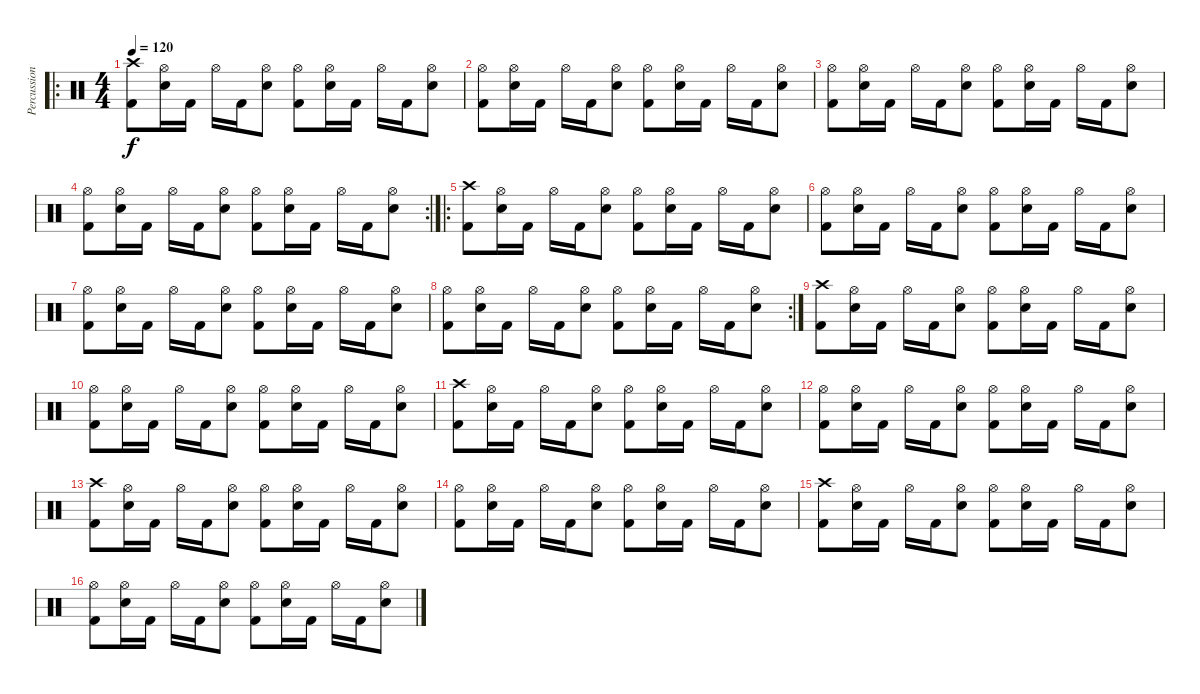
\track ("Percussion" "Percussion") {instrument percussion}
\staff {score}
\articulation defaults
\ro
\ts (4 4)
\tempo 120
\clef neutral
\ks c
("Crash high (hit)" "Kick (hit) 2").8{dy f} ("Hi-Hat (open)" "Snare (hit) 2").16 "Kick (hit) 2".16 "Hi-Hat (open)".16 "Kick (hit) 2".16 ("Hi-Hat (open)" "Snare (hit) 2").8 ("Hi-Hat (open)" "Kick (hit) 2").8 ("Hi-Hat (open)" "Snare (hit) 2").16 "Kick (hit) 2".16 "Hi-Hat (open)".16 "Kick (hit) 2".16 ("Hi-Hat (open)" "Snare (hit) 2").8 |
("Hi-Hat (open)" "Kick (hit) 2").8 ("Hi-Hat (open)" "Snare (hit) 2").16 "Kick (hit) 2".16 "Hi-Hat (open)".16 "Kick (hit) 2".16 ("Hi-Hat (open)" "Snare (hit) 2").8 ("Hi-Hat (open)" "Kick (hit) 2").8 ("Hi-Hat (open)" "Snare (hit) 2").16 "Kick (hit) 2".16 "Hi-Hat (open)".16 "Kick (hit) 2".16 ("Hi-Hat (open)" "Snare (hit) 2").8 |
("Hi-Hat (open)" "Kick (hit) 2").8 ("Hi-Hat (open)" "Snare (hit) 2").16 "Kick (hit) 2".16 "Hi-Hat (open)".16 "Kick (hit) 2".16 ("Hi-Hat (open)" "Snare (hit) 2").8 ("Hi-Hat (open)" "Kick (hit) 2").8 ("Hi-Hat (open)" "Snare (hit) 2").16 "Kick (hit) 2".16 "Hi-Hat (open)".16 "Kick (hit) 2".16 ("Hi-Hat (open)" "Snare (hit) 2").8 |
\rc 2
("Hi-Hat (open)" "Kick (hit) 2").8 ("Hi-Hat (open)" "Snare (hit) 2").16 "Kick (hit) 2".16 "Hi-Hat (open)".16 "Kick (hit) 2".16 ("Hi-Hat (open)" "Snare (hit) 2").8 ("Hi-Hat (open)" "Kick (hit) 2").8 ("Hi-Hat (open)" "Snare (hit) 2").16 "Kick (hit) 2".16 "Hi-Hat (open)".16 "Kick (hit) 2".16 ("Hi-Hat (open)" "Snare (hit) 2").8 |
\ro
("Crash high (hit)" "Kick (hit) 2").8 ("Hi-Hat (open)" "Snare (hit) 2").16 "Kick (hit) 2".16 "Hi-Hat (open)".16 "Kick (hit) 2".16 ("Hi-Hat (open)" "Snare (hit) 2").8 ("Hi-Hat (open)" "Kick (hit) 2").8 ("Hi-Hat (open)" "Snare (hit) 2").16 "Kick (hit) 2".16 "Hi-Hat (open)".16 "Kick (hit) 2".16 ("Hi-Hat (open)" "Snare (hit) 2").8 |
("Hi-Hat (open)" "Kick (hit) 2").8 ("Hi-Hat (open)" "Snare (hit) 2").16 "Kick (hit) 2".16 "Hi-Hat (open)".16 "Kick (hit) 2".16 ("Hi-Hat (open)" "Snare (hit) 2").8 ("Hi-Hat (open)" "Kick (hit) 2").8 ("Hi-Hat (open)" "Snare (hit) 2").16 "Kick (hit) 2".16 "Hi-Hat (open)".16 "Kick (hit) 2".16 ("Hi-Hat (open)" "Snare (hit) 2").8 |
("Hi-Hat (open)" "Kick (hit) 2").8 ("Hi-Hat (open)" "Snare (hit) 2").16 "Kick (hit) 2".16 "Hi-Hat (open)".16 "Kick (hit) 2".16 ("Hi-Hat (open)" "Snare (hit) 2").8 ("Hi-Hat (open)" "Kick (hit) 2").8 ("Hi-Hat (open)" "Snare (hit) 2").16 "Kick (hit) 2".16 "Hi-Hat (open)".16 "Kick (hit) 2".16 ("Hi-Hat (open)" "Snare (hit) 2").8 |
\rc 2
("Hi-Hat (open)" "Kick (hit) 2").8 ("Hi-Hat (open)" "Snare (hit) 2").16 "Kick (hit) 2".16 "Hi-Hat (open)".16 "Kick (hit) 2".16 ("Hi-Hat (open)" "Snare (hit) 2").8 ("Hi-Hat (open)" "Kick (hit) 2").8 ("Hi-Hat (open)" "Snare (hit) 2").16 "Kick (hit) 2".16 "Hi-Hat (open)".16 "Kick (hit) 2".16 ("Hi-Hat (open)" "Snare (hit) 2").8 |
("Crash high (hit)" "Kick (hit) 2").8 ("Hi-Hat (open)" "Snare (hit) 2").16 "Kick (hit) 2".16 "Hi-Hat (open)".16 "Kick (hit) 2".16 ("Hi-Hat (open)" "Snare (hit) 2").8 ("Hi-Hat (open)" "Kick (hit) 2").8 ("Hi-Hat (open)" "Snare (hit) 2").16 "Kick (hit) 2".16 "Hi-Hat (open)".16 "Kick (hit) 2".16 ("Hi-Hat (open)" "Snare (hit) 2").8 |
("Hi-Hat (open)" "Kick (hit) 2").8 ("Hi-Hat (open)" "Snare (hit) 2").16 "Kick (hit) 2".16 "Hi-Hat (open)".16 "Kick (hit) 2".16 ("Hi-Hat (open)" "Snare (hit) 2").8 ("Hi-Hat (open)" "Kick (hit) 2").8 ("Hi-Hat (open)" "Snare (hit) 2").16 "Kick (hit) 2".16 "Hi-Hat (open)".16 "Kick (hit) 2".16 ("Hi-Hat (open)" "Snare (hit) 2").8 |
("Crash high (hit)" "Kick (hit) 2").8 ("Hi-Hat (open)" "Snare (hit) 2").16 "Kick (hit) 2".16 "Hi-Hat (open)".16 "Kick (hit) 2".16 ("Hi-Hat (open)" "Snare (hit) 2").8 ("Hi-Hat (open)" "Kick (hit) 2").8 ("Hi-Hat (open)" "Snare (hit) 2").16 "Kick (hit) 2".16 "Hi-Hat (open)".16 "Kick (hit) 2".16 ("Hi-Hat (open)" "Snare (hit) 2").8 |
("Hi-Hat (open)" "Kick (hit) 2").8 ("Hi-Hat (open)" "Snare (hit) 2").16 "Kick (hit) 2".16 "Hi-Hat (open)".16 "Kick (hit) 2".16 ("Hi-Hat (open)" "Snare (hit) 2").8 ("Hi-Hat (open)" "Kick (hit) 2").8 ("Hi-Hat (open)" "Snare (hit) 2").16 "Kick (hit) 2".16 "Hi-Hat (open)".16 "Kick (hit) 2".16 ("Hi-Hat (open)" "Snare (hit) 2").8 |
("Crash high (hit)" "Kick (hit) 2").8 ("Hi-Hat (open)" "Snare (hit) 2").16 "Kick (hit) 2".16 "Hi-Hat (open)".16 "Kick (hit) 2".16 ("Hi-Hat (open)" "Snare (hit) 2").8 ("Hi-Hat (open)" "Kick (hit) 2").8 ("Hi-Hat (open)" "Snare (hit) 2").16 "Kick (hit) 2".16 "Hi-Hat (open)".16 "Kick (hit) 2".16 ("Hi-Hat (open)" "Snare (hit) 2").8 |
("Hi-Hat (open)" "Kick (hit) 2").8 ("Hi-Hat (open)" "Snare (hit) 2").16 "Kick (hit) 2".16 "Hi-Hat (open)".16 "Kick (hit) 2".16 ("Hi-Hat (open)" "Snare (hit) 2").8 ("Hi-Hat (open)" "Kick (hit) 2").8 ("Hi-Hat (open)" "Snare (hit) 2").16 "Kick (hit) 2".16 "Hi-Hat (open)".16 "Kick (hit) 2".16 ("Hi-Hat (open)" "Snare (hit) 2").8 |
("Crash high (hit)" "Kick (hit) 2").8 ("Hi-Hat (open)" "Snare (hit) 2").16 "Kick (hit) 2".16 "Hi-Hat (open)".16 "Kick (hit) 2".16 ("Hi-Hat (open)" "Snare (hit) 2").8 ("Hi-Hat (open)" "Kick (hit) 2").8 ("Hi-Hat (open)" "Snare (hit) 2").16 "Kick (hit) 2".16 "Hi-Hat (open)".16 "Kick (hit) 2".16 ("Hi-Hat (open)" "Snare (hit) 2").8 |
("Hi-Hat (open)" "Kick (hit) 2").8 ("Hi-Hat (open)" "Snare (hit) 2").16 "Kick (hit) 2".16 "Hi-Hat (open)".16 "Kick (hit) 2".16 ("Hi-Hat (open)" "Snare (hit) 2").8 ("Hi-Hat (open)" "Kick (hit) 2").8 ("Hi-Hat (open)" "Snare (hit) 2").16 "Kick (hit) 2".16 "Hi-Hat (open)".16 "Kick (hit) 2".16 ("Hi-Hat (open)" "Snare (hit) 2").8
